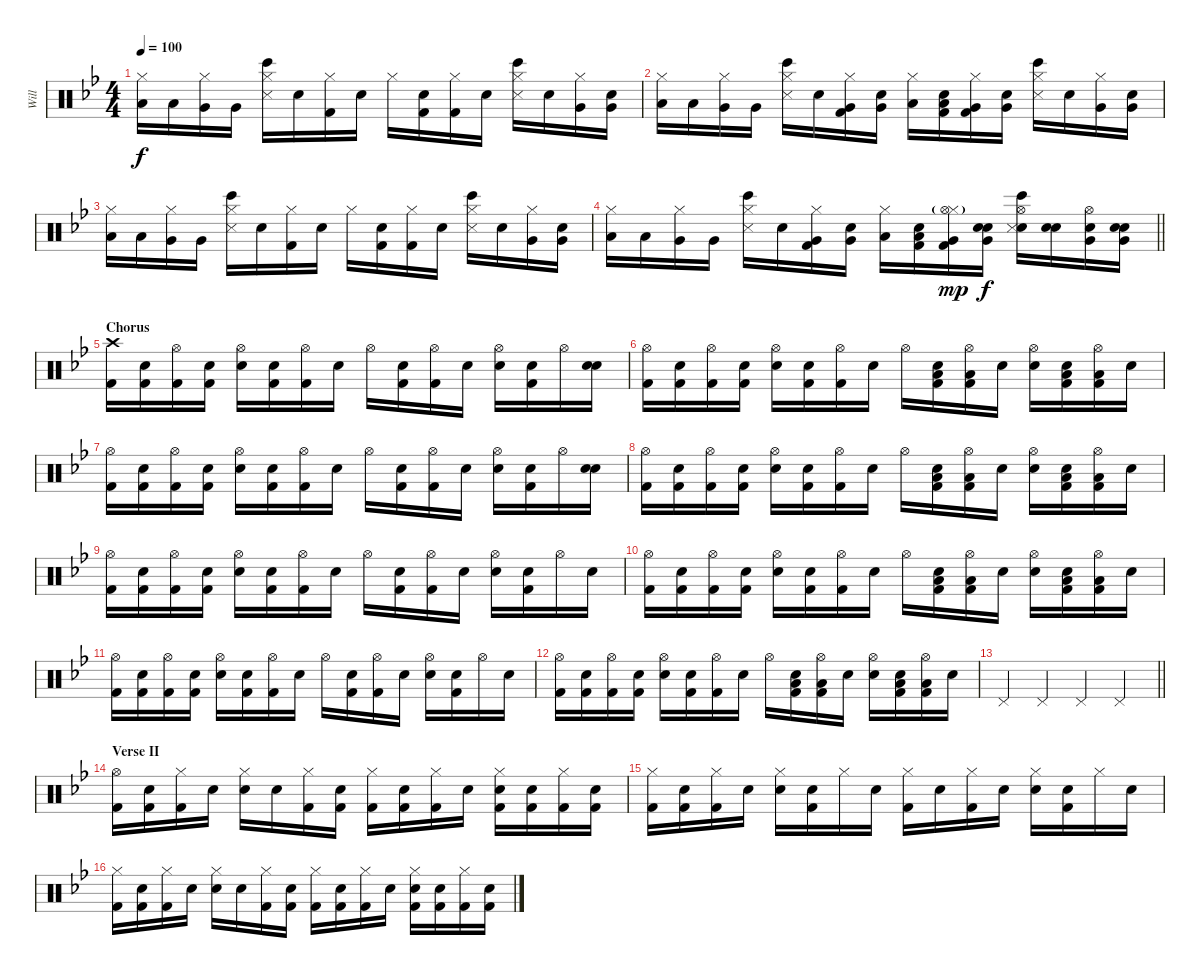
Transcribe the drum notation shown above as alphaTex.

\track ("Will" "Will") {instrument percussion}
\staff {score}
\articulation defaults
\ts (4 4)
\tempo 100
\clef neutral
\ks bb
("Hi-Hat (closed)" "Low Tom (hit)").16{dy f volume 13} "Low Tom (hit)".16 ("Hi-Hat (closed)" "Very Low Tom (hit)").16 "Very Low Tom (hit)".16 ("Hi-Hat (closed)" "Bongo High (hit)" "Snare (side stick) 3").16 "Snare (hit)".16 ("Hi-Hat (closed)" "Kick (hit) 2").16 "Snare (hit)".16 "Hi-Hat (closed)".16 ("Snare (hit)" "Kick (hit) 2").16 ("Hi-Hat (closed)" "Kick (hit) 2").16 "Snare (hit)".16 ("Hi-Hat (closed)" "Snare (side stick) 3" "Bongo High (hit)").16 "Snare (hit)".16 ("Hi-Hat (closed)" "Very Low Tom (hit)").16 ("Snare (hit)" "Very Low Tom (hit)").16 |
("Hi-Hat (closed)" "Low Tom (hit)").16{volume 13} "Low Tom (hit)".16 ("Hi-Hat (closed)" "Very Low Tom (hit)").16 "Very Low Tom (hit)".16 ("Hi-Hat (closed)" "Bongo High (hit)" "Snare (side stick) 3").16 "Snare (hit)".16 ("Hi-Hat (closed)" "Very Low Tom (hit)" "Kick (hit) 2").16 ("Snare (hit)" "Very Low Tom (hit)").16 ("Hi-Hat (closed)" "Low Tom (hit)").16 ("Snare (hit)" "Low Tom (hit)" "Kick (hit) 2").16 ("Hi-Hat (closed)" "Very Low Tom (hit)" "Kick (hit) 2").16 ("Snare (hit)" "Very Low Tom (hit)").16 ("Hi-Hat (closed)" "Snare (side stick) 3" "Bongo High (hit)").16 "Snare (hit)".16 ("Hi-Hat (closed)" "Very Low Tom (hit)").16 ("Snare (hit)" "Very Low Tom (hit)").16 |
("Hi-Hat (closed)" "Low Tom (hit)").16{volume 13} "Low Tom (hit)".16 ("Hi-Hat (closed)" "Very Low Tom (hit)").16 "Very Low Tom (hit)".16 ("Hi-Hat (closed)" "Bongo High (hit)" "Snare (side stick) 3").16 "Snare (hit)".16 ("Hi-Hat (closed)" "Kick (hit) 2").16 "Snare (hit)".16 "Hi-Hat (closed)".16 ("Snare (hit)" "Kick (hit) 2").16 ("Hi-Hat (closed)" "Kick (hit) 2").16 "Snare (hit)".16 ("Hi-Hat (closed)" "Snare (side stick) 3" "Bongo High (hit)").16 "Snare (hit)".16 ("Hi-Hat (closed)" "Very Low Tom (hit)").16 ("Snare (hit)" "Very Low Tom (hit)").16 |
\barLineRight lightlight
("Hi-Hat (closed)" "Low Tom (hit)").16{volume 13} "Low Tom (hit)".16 ("Hi-Hat (closed)" "Very Low Tom (hit)").16 "Very Low Tom (hit)".16 ("Hi-Hat (closed)" "Bongo High (hit)" "Snare (side stick) 3").16 "Snare (hit)".16 ("Hi-Hat (closed)" "Very Low Tom (hit)" "Kick (hit) 2").16 ("Snare (hit)" "Very Low Tom (hit)").16 ("Hi-Hat (closed)" "Low Tom (hit)").16 ("Snare (hit)" "Low Tom (hit)" "Kick (hit) 2").16 ("Hi-Hat (closed)" "Hi-Hat (open)"{g} "Very Low Tom (hit)" "Kick (hit) 2").16{dy mp} ("Snare (hit)" "Electric Snare (hit)" "Very Low Tom (hit)").16{dy f} ("Hi-Hat (open)" "Electric Snare (hit)" "Snare (side stick) 3" "Bongo High (hit)").16 ("Snare (hit)" "Electric Snare (hit)").16 ("Hi-Hat (open)" "Electric Snare (hit)" "Very Low Tom (hit)").16 ("Snare (hit)" "Electric Snare (hit)" "Very Low Tom (hit)").16 |
\section ("" "Chorus")
("Crash high (hit)" "Kick (hit) 2").16 ("Snare (hit)" "Kick (hit) 2").16 ("Hi-Hat (open)" "Kick (hit) 2").16 ("Snare (hit)" "Kick (hit) 2").16 ("Hi-Hat (open)" "Electric Snare (hit)").16 ("Snare (hit)" "Kick (hit) 2").16 ("Hi-Hat (open)" "Kick (hit) 2").16 "Snare (hit)".16 "Hi-Hat (open)".16 ("Snare (hit)" "Kick (hit) 2").16 ("Hi-Hat (open)" "Kick (hit) 2").16 "Snare (hit)".16 ("Hi-Hat (open)" "Electric Snare (hit)").16 ("Snare (hit)" "Kick (hit) 2").16 "Hi-Hat (open)".16 ("Snare (hit)" "Electric Snare (hit)").16 |
("Hi-Hat (open)" "Kick (hit) 2").16 ("Snare (hit)" "Kick (hit) 2").16 ("Hi-Hat (open)" "Kick (hit) 2").16 ("Snare (hit)" "Kick (hit) 2").16 ("Hi-Hat (open)" "Electric Snare (hit)").16 ("Snare (hit)" "Kick (hit) 2").16 ("Hi-Hat (open)" "Kick (hit) 2").16 "Snare (hit)".16 "Hi-Hat (open)".16 ("Snare (hit)" "Low Tom (hit)" "Kick (hit) 2").16 ("Hi-Hat (open)" "Low Tom (hit)" "Kick (hit) 2").16 "Snare (hit)".16 ("Hi-Hat (open)" "Electric Snare (hit)").16 ("Snare (hit)" "Low Tom (hit)" "Kick (hit) 2").16 ("Hi-Hat (open)" "Low Tom (hit)" "Kick (hit) 2").16 "Snare (hit)".16 |
("Hi-Hat (open)" "Kick (hit) 2").16 ("Snare (hit)" "Kick (hit) 2").16 ("Hi-Hat (open)" "Kick (hit) 2").16 ("Snare (hit)" "Kick (hit) 2").16 ("Hi-Hat (open)" "Electric Snare (hit)").16 ("Snare (hit)" "Kick (hit) 2").16 ("Hi-Hat (open)" "Kick (hit) 2").16 "Snare (hit)".16 "Hi-Hat (open)".16 ("Snare (hit)" "Kick (hit) 2").16 ("Hi-Hat (open)" "Kick (hit) 2").16 "Snare (hit)".16 ("Hi-Hat (open)" "Electric Snare (hit)").16 ("Snare (hit)" "Kick (hit) 2").16 "Hi-Hat (open)".16 ("Snare (hit)" "Electric Snare (hit)").16 |
("Hi-Hat (open)" "Kick (hit) 2").16 ("Snare (hit)" "Kick (hit) 2").16 ("Hi-Hat (open)" "Kick (hit) 2").16 ("Snare (hit)" "Kick (hit) 2").16 ("Hi-Hat (open)" "Electric Snare (hit)").16 ("Snare (hit)" "Kick (hit) 2").16 ("Hi-Hat (open)" "Kick (hit) 2").16 "Snare (hit)".16 "Hi-Hat (open)".16 ("Snare (hit)" "Low Tom (hit)" "Kick (hit) 2").16 ("Hi-Hat (open)" "Low Tom (hit)" "Kick (hit) 2").16 "Snare (hit)".16 ("Hi-Hat (open)" "Electric Snare (hit)").16 ("Snare (hit)" "Low Tom (hit)" "Kick (hit) 2").16 ("Hi-Hat (open)" "Low Tom (hit)" "Kick (hit) 2").16 "Snare (hit)".16 |
("Hi-Hat (open)" "Kick (hit) 2").16 ("Snare (hit)" "Kick (hit) 2").16 ("Hi-Hat (open)" "Kick (hit) 2").16 ("Snare (hit)" "Kick (hit) 2").16 ("Hi-Hat (open)" "Electric Snare (hit)").16 ("Snare (hit)" "Kick (hit) 2").16 ("Hi-Hat (open)" "Kick (hit) 2").16 "Snare (hit)".16 "Hi-Hat (open)".16 ("Snare (hit)" "Kick (hit) 2").16 ("Hi-Hat (open)" "Kick (hit) 2").16 "Snare (hit)".16 ("Hi-Hat (open)" "Electric Snare (hit)").16 ("Snare (hit)" "Kick (hit) 2").16 "Hi-Hat (open)".16 "Snare (hit)".16 |
("Hi-Hat (open)" "Kick (hit) 2").16 ("Snare (hit)" "Kick (hit) 2").16 ("Hi-Hat (open)" "Kick (hit) 2").16 ("Snare (hit)" "Kick (hit) 2").16 ("Hi-Hat (open)" "Electric Snare (hit)").16 ("Snare (hit)" "Kick (hit) 2").16 ("Hi-Hat (open)" "Kick (hit) 2").16 "Snare (hit)".16 "Hi-Hat (open)".16 ("Snare (hit)" "Low Tom (hit)" "Kick (hit) 2").16 ("Hi-Hat (open)" "Low Tom (hit)" "Kick (hit) 2").16 "Snare (hit)".16 ("Hi-Hat (open)" "Electric Snare (hit)").16 ("Snare (hit)" "Low Tom (hit)" "Kick (hit) 2").16 ("Hi-Hat (open)" "Low Tom (hit)" "Kick (hit) 2").16 "Snare (hit)".16 |
("Hi-Hat (open)" "Kick (hit) 2").16 ("Snare (hit)" "Kick (hit) 2").16 ("Hi-Hat (open)" "Kick (hit) 2").16 ("Snare (hit)" "Kick (hit) 2").16 ("Hi-Hat (open)" "Electric Snare (hit)").16 ("Snare (hit)" "Kick (hit) 2").16 ("Hi-Hat (open)" "Kick (hit) 2").16 "Snare (hit)".16 "Hi-Hat (open)".16 ("Snare (hit)" "Kick (hit) 2").16 ("Hi-Hat (open)" "Kick (hit) 2").16 "Snare (hit)".16 ("Hi-Hat (open)" "Electric Snare (hit)").16 ("Snare (hit)" "Kick (hit) 2").16 "Hi-Hat (open)".16 "Snare (hit)".16 |
("Hi-Hat (open)" "Kick (hit) 2").16 ("Snare (hit)" "Kick (hit) 2").16 ("Hi-Hat (open)" "Kick (hit) 2").16 ("Snare (hit)" "Kick (hit) 2").16 ("Hi-Hat (open)" "Electric Snare (hit)").16 ("Snare (hit)" "Kick (hit) 2").16 ("Hi-Hat (open)" "Kick (hit) 2").16 "Snare (hit)".16 "Hi-Hat (open)".16 ("Snare (hit)" "Low Tom (hit)" "Kick (hit) 2").16 ("Hi-Hat (open)" "Low Tom (hit)" "Kick (hit) 2").16 "Snare (hit)".16 ("Hi-Hat (open)" "Electric Snare (hit)").16 ("Snare (hit)" "Low Tom (hit)" "Kick (hit) 2").16 ("Hi-Hat (open)" "Low Tom (hit)" "Kick (hit) 2").16 "Snare (hit)".16 |
\barLineRight lightlight "Pedal Hi-Hat (hit)".4 "Pedal Hi-Hat (hit)".4 "Pedal Hi-Hat (hit)".4 "Pedal Hi-Hat (hit)".4
|
\section ("" "Verse II")
("Hi-Hat (open)" "Kick (hit) 2").16 ("Snare (hit)" "Kick (hit) 2").16 ("Hi-Hat (closed)" "Kick (hit) 2").16 "Snare (hit)".16 ("Hi-Hat (closed)" "Electric Snare (hit)").16 "Snare (hit)".16 ("Hi-Hat (closed)" "Kick (hit) 2").16 ("Snare (hit)" "Kick (hit) 2").16 ("Hi-Hat (closed)" "Kick (hit) 2").16 ("Snare (hit)" "Kick (hit) 2").16 ("Hi-Hat (closed)" "Kick (hit) 2").16 "Snare (hit)".16 ("Hi-Hat (closed)" "Electric Snare (hit)" "Kick (hit) 2").16 ("Snare (hit)" "Kick (hit) 2").16 ("Hi-Hat (closed)" "Kick (hit) 2").16 ("Snare (hit)" "Kick (hit) 2").16 |
("Hi-Hat (closed)" "Kick (hit) 2").16 ("Snare (hit)" "Kick (hit) 2").16 ("Hi-Hat (closed)" "Kick (hit) 2").16 "Snare (hit)".16 ("Hi-Hat (closed)" "Electric Snare (hit)").16 ("Snare (hit)" "Kick (hit) 2").16 "Hi-Hat (closed)".16 "Snare (hit)".16 ("Hi-Hat (closed)" "Kick (hit) 2").16 "Snare (hit)".16 ("Hi-Hat (closed)" "Kick (hit) 2").16 "Snare (hit)".16 ("Hi-Hat (closed)" "Electric Snare (hit)").16 ("Snare (hit)" "Kick (hit) 2").16 "Hi-Hat (closed)".16 "Snare (hit)".16 |
("Hi-Hat (closed)" "Kick (hit) 2").16 ("Snare (hit)" "Kick (hit) 2").16 ("Hi-Hat (closed)" "Kick (hit) 2").16 "Snare (hit)".16 ("Hi-Hat (closed)" "Electric Snare (hit)").16 "Snare (hit)".16 ("Hi-Hat (closed)" "Kick (hit) 2").16 ("Snare (hit)" "Kick (hit) 2").16 ("Hi-Hat (closed)" "Kick (hit) 2").16 ("Snare (hit)" "Kick (hit) 2").16 ("Hi-Hat (closed)" "Kick (hit) 2").16 "Snare (hit)".16 ("Hi-Hat (closed)" "Electric Snare (hit)" "Kick (hit) 2").16 ("Snare (hit)" "Kick (hit) 2").16 ("Hi-Hat (closed)" "Kick (hit) 2").16 ("Snare (hit)" "Kick (hit) 2").16
